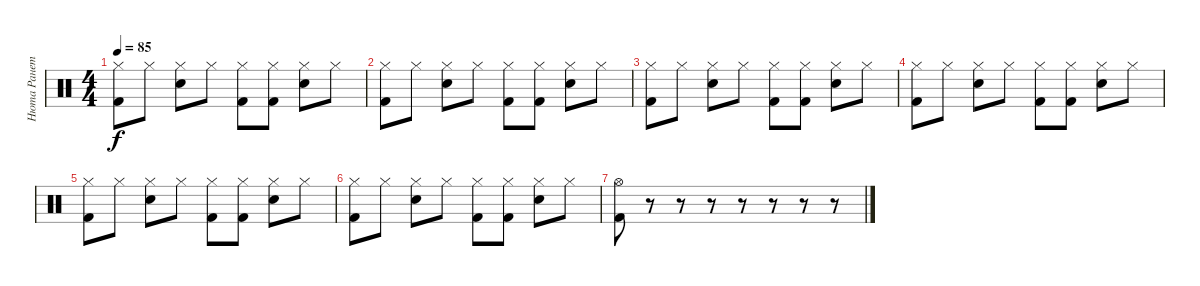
\track ("Нюта Ранетка" "Нюта Ранет") {instrument percussion}
\staff {score}
\articulation defaults
\ts (4 4)
\tempo 85
\clef neutral
\ks c
("Hi-Hat (closed)" "Kick (hit) 2").8{dy f} "Hi-Hat (closed)".8 ("Hi-Hat (closed)" "Electric Snare (hit)").8 "Hi-Hat (closed)".8 ("Hi-Hat (closed)" "Kick (hit) 2").8 ("Hi-Hat (closed)" "Kick (hit) 2").8 ("Hi-Hat (closed)" "Electric Snare (hit)").8 "Hi-Hat (closed)".8 |
("Hi-Hat (closed)" "Kick (hit) 2").8 "Hi-Hat (closed)".8 ("Hi-Hat (closed)" "Electric Snare (hit)").8 "Hi-Hat (closed)".8 ("Hi-Hat (closed)" "Kick (hit) 2").8 ("Hi-Hat (closed)" "Kick (hit) 2").8 ("Hi-Hat (closed)" "Electric Snare (hit)").8 "Hi-Hat (closed)".8 |
("Hi-Hat (closed)" "Kick (hit) 2").8 "Hi-Hat (closed)".8 ("Hi-Hat (closed)" "Electric Snare (hit)").8 "Hi-Hat (closed)".8 ("Hi-Hat (closed)" "Kick (hit) 2").8 ("Hi-Hat (closed)" "Kick (hit) 2").8 ("Hi-Hat (closed)" "Electric Snare (hit)").8 "Hi-Hat (closed)".8 |
("Hi-Hat (closed)" "Kick (hit) 2").8 "Hi-Hat (closed)".8 ("Hi-Hat (closed)" "Electric Snare (hit)").8 "Hi-Hat (closed)".8 ("Hi-Hat (closed)" "Kick (hit) 2").8 ("Hi-Hat (closed)" "Kick (hit) 2").8 ("Hi-Hat (closed)" "Electric Snare (hit)").8 "Hi-Hat (closed)".8 |
("Hi-Hat (closed)" "Kick (hit) 2").8 "Hi-Hat (closed)".8 ("Hi-Hat (closed)" "Electric Snare (hit)").8 "Hi-Hat (closed)".8 ("Hi-Hat (closed)" "Kick (hit) 2").8 ("Hi-Hat (closed)" "Kick (hit) 2").8 ("Hi-Hat (closed)" "Electric Snare (hit)").8 "Hi-Hat (closed)".8 |
("Hi-Hat (closed)" "Kick (hit) 2").8 "Hi-Hat (closed)".8 ("Hi-Hat (closed)" "Electric Snare (hit)").8 "Hi-Hat (closed)".8 ("Hi-Hat (closed)" "Kick (hit) 2").8 ("Hi-Hat (closed)" "Kick (hit) 2").8 ("Hi-Hat (closed)" "Electric Snare (hit)").8 "Hi-Hat (closed)".8 |
("Hi-Hat (open)" "Kick (hit) 2").8 r.8 r.8 r.8 r.8 r.8 r.8 r.8
